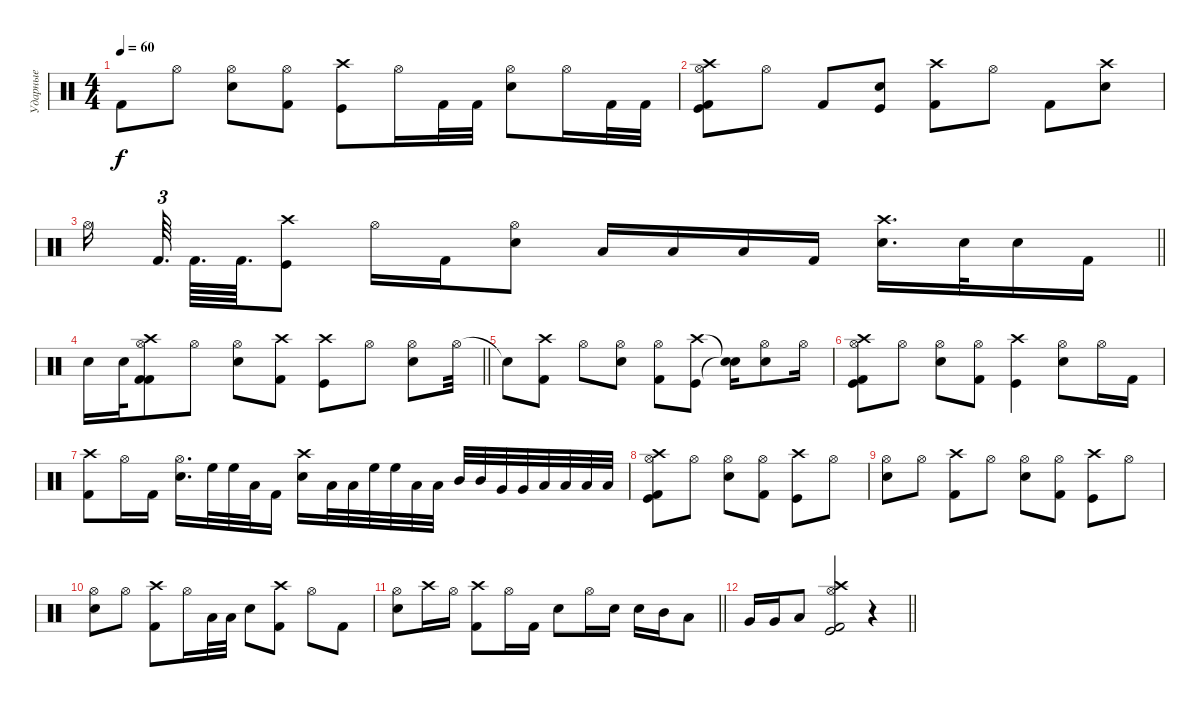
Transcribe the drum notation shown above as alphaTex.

\track ("Ударные" "Ударные") {instrument percussion}
\staff {score}
\articulation defaults
\ts (4 4)
\tempo 60
\clef neutral
\ks c "Kick (hit) 2".8{dy f} "Hi-Hat (open)".8
("Hi-Hat (open)" "Snare (hit) 2").8 ("Hi-Hat (open)" "Kick (hit) 2").8 ("Crash high (hit)" "Kick (hit)").8 "Hi-Hat (open)".16 "Kick (hit) 2".32 "Kick (hit) 2".32 ("Hi-Hat (open)" "Snare (hit) 2").8 "Hi-Hat (open)".16 "Kick (hit) 2".32 "Kick (hit) 2".32 |
("Crash high (hit)" "Hi-Hat (open)" "Kick (hit) 2" "Kick (hit)").8 "Hi-Hat (open)".8 "Kick (hit) 2".8 ("Kick (hit)" "Snare (hit) 2").8 ("Crash high (hit)" "Kick (hit) 2").8 "Hi-Hat (open)".8 "Kick (hit) 2".8 ("Crash high (hit)" "Snare (hit) 2").8 |
\barLineRight lightlight "Hi-Hat (open)".16{beam splitsecondary} "Kick (hit) 2".64{d tu (3 2) beam splitsecondary} "Kick (hit) 2".64{d} "Kick (hit) 2".64{d}
("Crash high (hit)" "Kick (hit)").8 "Hi-Hat (open)".16 "Kick (hit) 2".16 ("Hi-Hat (open)" "Snare (hit) 2").8 "Low Tom (hit)".16 "Low Tom (hit)".16 "Low Tom (hit)".16 "Kick (hit) 2".16 ("Crash high (hit)" "Snare (hit) 2").16{d} "Snare (hit) 2".32 "Snare (hit) 2".16 "Kick (hit) 2".16 |
\barLineRight lightlight "Snare (hit) 2".16 "Snare (hit) 2".32
("Hi-Hat (open)" "Kick (hit) 2" "Kick (hit) 2" "Crash high (hit)").8 "Hi-Hat (open)".8 ("Hi-Hat (open)" "Snare (hit) 2").8 ("Crash high (hit)" "Kick (hit) 2").8 ("Crash high (hit)" "Kick (hit)").8 "Hi-Hat (open)".8 ("Hi-Hat (open)" "Snare (hit) 2").8 "Hi-Hat (open)".32 |
"Snare (hit)"{t}.8 ("Crash high (hit)" "Kick (hit) 2").8 "Hi-Hat (open)".8 ("Hi-Hat (open)" "Snare (hit) 2").8 ("Hi-Hat (open)" "Kick (hit) 2").8 ("Crash high (hit)" "Kick (hit)").8 ("Snare (hit)"{t} "Snare (hit)"{t}).16 ("Hi-Hat (open)" "Snare (hit) 2").8 "Hi-Hat (open)".16 |
("Crash high (hit)" "Kick (hit) 2" "Kick (hit)" "Hi-Hat (open)").8 "Hi-Hat (open)".8 ("Hi-Hat (open)" "Snare (hit) 2").8 ("Hi-Hat (open)" "Kick (hit) 2").8 ("Crash high (hit)" "Kick (hit)").4 ("Hi-Hat (open)" "Snare (hit) 2").8 "Hi-Hat (open)".16 "Kick (hit) 2".16 |
("Crash high (hit)" "Kick (hit) 2").8 "Hi-Hat (open)".16 "Kick (hit) 2".16 ("Hi-Hat (open)" "Snare (hit) 2").16{d} "High Floor Tom (hit)".32 "High Floor Tom (hit)".32 "Low Tom (hit)".32 "Kick (hit) 2".16 ("Crash high (hit)" "Snare (hit) 2").16 "Low Tom (hit)".32 "Low Tom (hit)".32 "High Floor Tom (hit)".32 "High Floor Tom (hit)".32 "Low Tom (hit)".32 "Low Tom (hit)".32 "Mid Tom (hit)".32 "Mid Tom (hit)".32 "Very Low Tom (hit)".32 "Very Low Tom (hit)".32 "Low Tom (hit)".32 "Low Tom (hit)".32 "Low Floor Tom (hit)".32 "Low Floor Tom (hit)".32 |
("Crash high (hit)" "Kick (hit) 2" "Kick (hit)" "Hi-Hat (open)").8 "Hi-Hat (open)".8 ("Hi-Hat (open)" "Snare (hit) 2").8 ("Hi-Hat (open)" "Kick (hit) 2").8 ("Crash high (hit)" "Kick (hit)").8 "Hi-Hat (open)".8 |
("Hi-Hat (open)" "Snare (hit) 2").8 "Hi-Hat (open)".8 ("Crash high (hit)" "Kick (hit) 2").8 "Hi-Hat (open)".8 ("Hi-Hat (open)" "Snare (hit) 2").8 ("Hi-Hat (open)" "Kick (hit) 2").8 ("Crash high (hit)" "Kick (hit)").8 "Hi-Hat (open)".8 |
("Hi-Hat (open)" "Snare (hit) 2").8 "Hi-Hat (open)".8 ("Crash high (hit)" "Kick (hit) 2").8 "Hi-Hat (open)".16 "Low Tom (hit)".32 "Low Tom (hit)".32 "Snare (hit) 2".8 ("Crash high (hit)" "Kick (hit) 2").8 "Hi-Hat (open)".8 "Kick (hit) 2".8 |
\barLineRight lightlight
("Hi-Hat (open)" "Snare (hit) 2").8 "Crash high (hit)".16 "Hi-Hat (open)".16 ("Crash high (hit)" "Kick (hit) 2").8 "Hi-Hat (open)".16 "Kick (hit) 2".16 "Snare (hit) 2".8 "Hi-Hat (open)".16 "Snare (hit) 2".16 "Snare (hit) 2".16 "Mid Tom (hit)".16 "Low Tom (hit)".8 |
\barLineRight lightlight "Very Low Tom (hit)".16 "Very Low Tom (hit)".16 "Low Floor Tom (hit)".8
("Hi-Hat (open)" "Crash high (hit)" "Kick (hit) 2" "Kick (hit)").2 r.4
